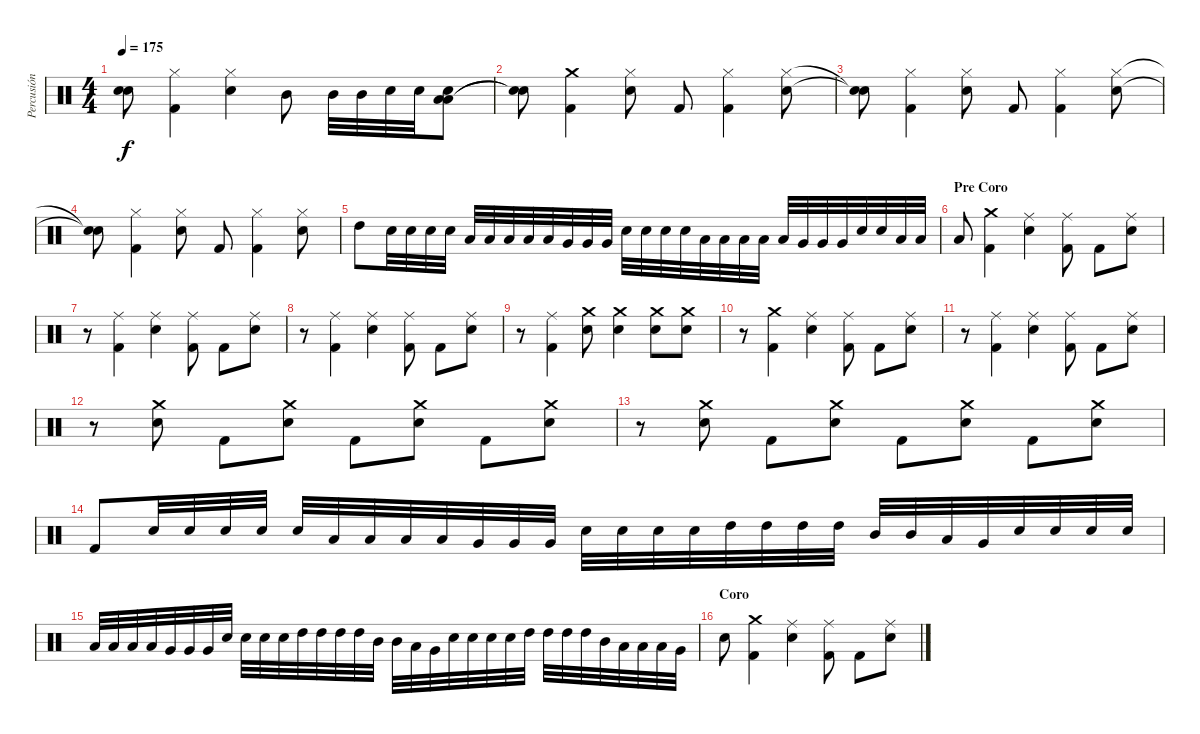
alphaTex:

\track ("Percusión" "Percusión") {instrument percussion}
\staff {score}
\articulation defaults
\ts (4 4)
\tempo 175
\clef neutral
\ks c
("Snare (hit)"{t} "Snare (hit)"{t}).8{dy f} ("Hi-Hat (closed)" "Kick (hit) 2").4 ("Snare (hit) 2" "Hi-Hat (closed)").4 "Mid Tom (hit)".8 "Mid Tom (hit)".32 "Mid Tom (hit)".32 "Snare (hit) 2".32 "Snare (hit) 2".32 ("Low Tom (hit)" "Low Floor Tom (hit)" "Snare (hit) 2").8 |
("Snare (hit)"{t} "Snare (hit)"{t}).8 ("Crash medium (hit)" "Kick (hit) 2").4 ("Snare (hit) 2" "Hi-Hat (closed)").8 "Kick (hit) 2".8 ("Kick (hit) 2" "Hi-Hat (closed)").4 ("Snare (hit) 2" "Hi-Hat (closed)").8 |
("Snare (hit)"{t} "Snare (hit)"{t}).8 ("Hi-Hat (closed)" "Kick (hit) 2").4 ("Snare (hit) 2" "Hi-Hat (closed)").8 "Kick (hit) 2".8 ("Kick (hit) 2" "Hi-Hat (closed)").4 ("Snare (hit) 2" "Hi-Hat (closed)").8 |
("Snare (hit)"{t} "Snare (hit)"{t}).8 ("Hi-Hat (closed)" "Kick (hit) 2").4 ("Snare (hit) 2" "Hi-Hat (closed)").8 "Kick (hit) 2".8 ("Kick (hit) 2" "Hi-Hat (closed)").4 ("Snare (hit) 2" "Hi-Hat (closed)").8 |
"High Tom (hit)".8 "Snare (hit) 2".32 "Snare (hit) 2".32 "Snare (hit) 2".32 "Snare (hit) 2".32 "Low Tom (hit)".32 "Low Tom (hit)".32 "Low Tom (hit)".32 "Low Tom (hit)".32 "Low Tom (hit)".32 "Very Low Tom (hit)".32 "Very Low Tom (hit)".32 "Very Low Tom (hit)".32 "Snare (hit) 2".32 "Snare (hit) 2".32 "Snare (hit) 2".32 "Snare (hit) 2".32 "Low Tom (hit)".32 "Low Tom (hit)".32 "Low Tom (hit)".32 "Low Tom (hit)".32 "Low Tom (hit)".32 "Very Low Tom (hit)".32 "Very Low Tom (hit)".32 "Very Low Tom (hit)".32 "Snare (hit) 2".32 "Snare (hit) 2".32 "Low Tom (hit)".32 "Low Tom (hit)".32 |
\section ("" "Pre Coro")
"Low Tom (hit)".8 ("Kick (hit) 2" "Crash medium (hit)").4 ("Ride (middle)" "Snare (hit) 2").4 ("Kick (hit) 2" "Ride (middle)").8 "Kick (hit) 2".8 ("Ride (middle)" "Snare (hit) 2").8 |
r.8 ("Kick (hit) 2" "Ride (middle)").4 ("Ride (middle)" "Snare (hit) 2").4 ("Kick (hit) 2" "Ride (middle)").8 "Kick (hit) 2".8 ("Ride (middle)" "Snare (hit) 2").8 |
r.8 ("Kick (hit) 2" "Ride (middle)").4 ("Ride (middle)" "Snare (hit) 2").4 ("Kick (hit) 2" "Ride (middle)").8 "Kick (hit) 2".8 ("Ride (middle)" "Snare (hit) 2").8 |
r.8 ("Kick (hit) 2" "Ride (middle)").4 ("Crash medium (hit)" "Snare (hit) 2").8 ("Crash medium (hit)" "Snare (hit) 2").4 ("Crash medium (hit)" "Snare (hit) 2").8 ("Crash medium (hit)" "Snare (hit) 2").8 |
r.8 ("Kick (hit) 2" "Crash medium (hit)").4 ("Ride (middle)" "Snare (hit) 2").4 ("Kick (hit) 2" "Ride (middle)").8 "Kick (hit) 2".8 ("Ride (middle)" "Snare (hit) 2").8 |
r.8 ("Kick (hit) 2" "Ride (middle)").4 ("Ride (middle)" "Snare (hit) 2").4 ("Kick (hit) 2" "Ride (middle)").8 "Kick (hit) 2".8 ("Ride (middle)" "Snare (hit) 2").8 |
r.8 ("Crash medium (hit)" "Snare (hit) 2").8 "Kick (hit) 2".8 ("Crash medium (hit)" "Snare (hit) 2").8 "Kick (hit) 2".8 ("Crash medium (hit)" "Snare (hit) 2").8 "Kick (hit) 2".8 ("Crash medium (hit)" "Snare (hit) 2").8 |
r.8 ("Crash medium (hit)" "Snare (hit) 2").8 "Kick (hit) 2".8 ("Crash medium (hit)" "Snare (hit) 2").8 "Kick (hit) 2".8 ("Crash medium (hit)" "Snare (hit) 2").8 "Kick (hit) 2".8 ("Crash medium (hit)" "Snare (hit) 2").8 |
"Kick (hit) 2".8 "Snare (hit) 2".32 "Snare (hit) 2".32 "Snare (hit) 2".32 "Snare (hit) 2".32 "Snare (hit) 2".32 "Low Tom (hit)".32 "Low Tom (hit)".32 "Low Tom (hit)".32 "Low Tom (hit)".32 "Very Low Tom (hit)".32 "Very Low Tom (hit)".32 "Very Low Tom (hit)".32 "Snare (hit) 2".32 "Snare (hit) 2".32 "Snare (hit) 2".32 "Snare (hit) 2".32 "High Tom (hit)".32 "High Tom (hit)".32 "High Tom (hit)".32 "High Tom (hit)".32 "Mid Tom (hit)".32 "Mid Tom (hit)".32 "Low Tom (hit)".32 "Very Low Tom (hit)".32 "Snare (hit) 2".32 "Snare (hit) 2".32 "Snare (hit) 2".32 "Snare (hit) 2".32 |
"Low Tom (hit)".32 "Low Tom (hit)".32 "Low Tom (hit)".32 "Low Tom (hit)".32 "Very Low Tom (hit)".32 "Very Low Tom (hit)".32 "Very Low Tom (hit)".32 "Snare (hit) 2".32 "Snare (hit) 2".32 "Snare (hit) 2".32 "Snare (hit) 2".32 "High Tom (hit)".32 "High Tom (hit)".32 "High Tom (hit)".32 "High Tom (hit)".32 "Mid Tom (hit)".32 "Mid Tom (hit)".32 "Low Tom (hit)".32 "Very Low Tom (hit)".32 "Snare (hit) 2".32 "Snare (hit) 2".32 "Snare (hit) 2".32 "Snare (hit) 2".32 "High Tom (hit)".32 "High Tom (hit)".32 "High Tom (hit)".32 "High Tom (hit)".32 "Mid Tom (hit)".32 "Low Tom (hit)".32 "Low Tom (hit)".32 "Low Tom (hit)".32 "Very Low Tom (hit)".32 |
\section ("" "Coro")
"Snare (hit) 2".8 ("Crash medium (hit)" "Kick (hit) 2").4 ("Snare (hit) 2" "Ride (middle)").4 ("Ride (middle)" "Kick (hit) 2").8 "Kick (hit) 2".8 ("Ride (middle)" "Snare (hit) 2").8
